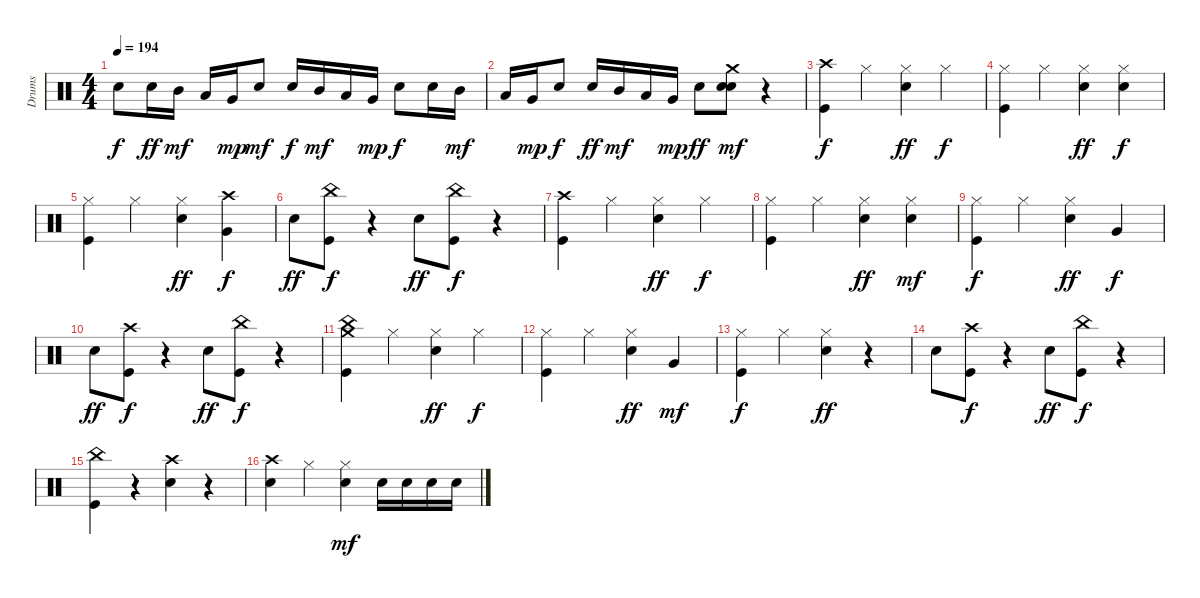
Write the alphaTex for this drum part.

\track ("Drums" "Drums") {instrument percussion}
\staff {score}
\articulation defaults
\ts (4 4)
\tempo 194
\clef neutral
\ks c "Snare (hit) 2".8{dy f} "Snare (hit) 2".16{dy ff} "Mid Tom (hit)".16{dy mf} "Low Tom (hit)".16 "Very Low Tom (hit)".16{dy mp} "Snare (hit) 2".8{dy mf} "Snare (hit) 2".16{dy f} "Mid Tom (hit)".16{dy mf} "Low Tom (hit)".16 "Very Low Tom (hit)".16{dy mp} "Snare (hit) 2".8{dy f} "Snare (hit) 2".16 "Mid Tom (hit)".16{dy mf}
|
"Low Tom (hit)".16 "Very Low Tom (hit)".16{dy mp} "Snare (hit) 2".8{dy f} "Snare (hit) 2".16{dy ff} "Mid Tom (hit)".16{dy mf} "Low Tom (hit)".16 "Very Low Tom (hit)".16{dy mp} "Snare (hit) 2".8{dy ff} ("Snare (hit)" "Snare (hit) 2" "Crash medium (hit)").8{dy mf} r.4 |
("Kick (hit)" "Crash high (hit)").4{dy f} "Hi-Hat (closed)".4 ("Snare (hit) 2" "Hi-Hat (closed)").4{dy ff} "Hi-Hat (closed)".4{dy f} |
("Kick (hit)" "Hi-Hat (closed)").4 "Hi-Hat (closed)".4 ("Snare (hit) 2" "Hi-Hat (closed)").4{dy ff} ("Snare (hit) 2" "Hi-Hat (closed)").4{dy f} |
("Kick (hit)" "Hi-Hat (closed)").4 "Hi-Hat (closed)".4 ("Snare (hit) 2" "Hi-Hat (closed)").4{dy ff} ("Very Low Tom (hit)" "Crash high (hit)").4{dy f} |
"Snare (hit) 2".8{dy ff} ("Kick (hit)" "China (hit)").8{dy f} r.4 "Snare (hit) 2".8{dy ff} ("Kick (hit)" "China (hit)").8{dy f} r.4 |
("Kick (hit)" "Crash high (hit)").4 "Hi-Hat (closed)".4 ("Snare (hit) 2" "Hi-Hat (closed)").4{dy ff} "Hi-Hat (closed)".4{dy f} |
("Kick (hit)" "Hi-Hat (closed)").4 "Hi-Hat (closed)".4 ("Snare (hit) 2" "Hi-Hat (closed)").4{dy ff} ("Snare (hit) 2" "Hi-Hat (closed)").4{dy mf} |
("Kick (hit)" "Hi-Hat (closed)").4{dy f} "Hi-Hat (closed)".4 ("Snare (hit) 2" "Hi-Hat (closed)").4{dy ff} "Very Low Tom (hit)".4{dy f} |
"Snare (hit) 2".8{dy ff} ("Kick (hit)" "Crash high (hit)").8{dy f} r.4 "Snare (hit) 2".8{dy ff} ("Kick (hit)" "China (hit)").8{dy f} r.4 |
("Kick (hit)" "China (hit)" "Crash medium (hit)").4 "Hi-Hat (closed)".4 ("Snare (hit) 2" "Hi-Hat (closed)").4{dy ff} "Hi-Hat (closed)".4{dy f} |
("Kick (hit)" "Hi-Hat (closed)").4 "Hi-Hat (closed)".4 ("Snare (hit) 2" "Hi-Hat (closed)").4{dy ff} "Very Low Tom (hit)".4{dy mf} |
("Kick (hit)" "Hi-Hat (closed)").4{dy f} "Hi-Hat (closed)".4 ("Snare (hit) 2" "Hi-Hat (closed)").4{dy ff} r.4 |
"Snare (hit) 2".8 ("Kick (hit)" "Crash high (hit)").8{dy f} r.4 "Snare (hit) 2".8{dy ff} ("Kick (hit)" "China (hit)").8{dy f} r.4 |
("Kick (hit)" "China (hit)").4 r.4 ("Snare (hit) 2" "Crash high (hit)").4 r.4 |
("Snare (hit) 2" "Crash high (hit)").4 "Hi-Hat (closed)".4 ("Snare (hit) 2" "Hi-Hat (closed)").4{dy mf} "Snare (hit) 2".16 "Snare (hit) 2".16 "Snare (hit) 2".16 "Snare (hit) 2".16
